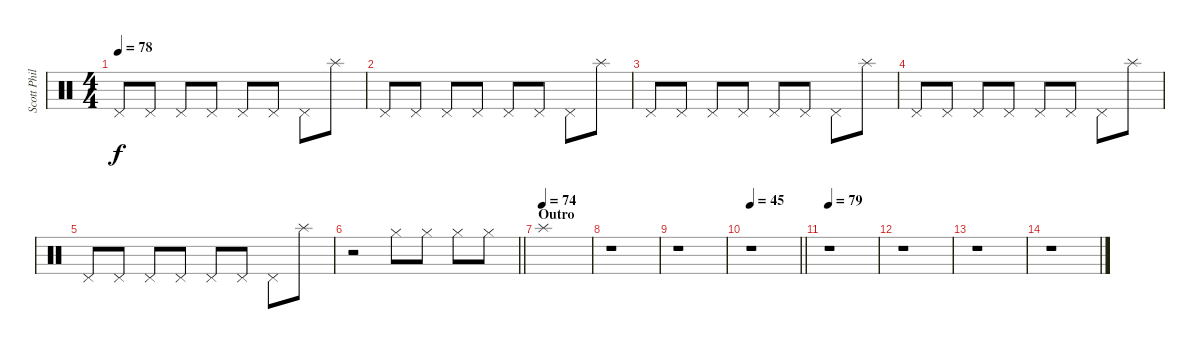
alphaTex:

\track ("Scott Phillips (Drums)" "Scott Phil") {instrument percussion}
\staff {score}
\articulation defaults
\ts (4 4)
\tempo 78
\clef neutral
\ks c "Pedal Hi-Hat (hit)".8{dy f} "Pedal Hi-Hat (hit)".8 "Pedal Hi-Hat (hit)".8 "Pedal Hi-Hat (hit)".8 "Pedal Hi-Hat (hit)".8 "Pedal Hi-Hat (hit)".8 "Pedal Hi-Hat (hit)".8 "Splash (hit)".8
|
"Pedal Hi-Hat (hit)".8 "Pedal Hi-Hat (hit)".8 "Pedal Hi-Hat (hit)".8 "Pedal Hi-Hat (hit)".8 "Pedal Hi-Hat (hit)".8 "Pedal Hi-Hat (hit)".8 "Pedal Hi-Hat (hit)".8 "Splash (hit)".8 |
"Pedal Hi-Hat (hit)".8 "Pedal Hi-Hat (hit)".8 "Pedal Hi-Hat (hit)".8 "Pedal Hi-Hat (hit)".8 "Pedal Hi-Hat (hit)".8 "Pedal Hi-Hat (hit)".8 "Pedal Hi-Hat (hit)".8 "Splash (hit)".8 |
"Pedal Hi-Hat (hit)".8 "Pedal Hi-Hat (hit)".8 "Pedal Hi-Hat (hit)".8 "Pedal Hi-Hat (hit)".8 "Pedal Hi-Hat (hit)".8 "Pedal Hi-Hat (hit)".8 "Pedal Hi-Hat (hit)".8 "Splash (hit)".8 |
"Pedal Hi-Hat (hit)".8 "Pedal Hi-Hat (hit)".8 "Pedal Hi-Hat (hit)".8 "Pedal Hi-Hat (hit)".8 "Pedal Hi-Hat (hit)".8 "Pedal Hi-Hat (hit)".8 "Pedal Hi-Hat (hit)".8 "Splash (hit)".8 |
\barLineRight lightlight
r.2 "Hi-Hat (closed)".8 "Hi-Hat (closed)".8 "Hi-Hat (closed)".8 "Hi-Hat (closed)".8 |
\section ("" "Outro")
\tempo (74)
"Splash (hit)".1 |
r.1 |
r.1 |
\tempo 45
\barLineRight lightlight
r.1 |
\tempo 79
r.1 |
r.1 |
r.1 |
r.1
